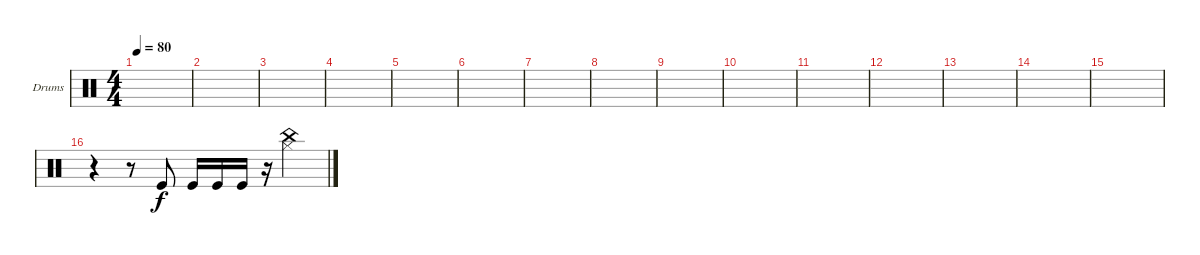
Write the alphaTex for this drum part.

\defaultSystemsLayout 4
\bracketExtendMode groupsimilarinstruments
\firstSystemTrackNameOrientation horizontal
\otherSystemsTrackNameOrientation horizontal
\track ("Drumkit" "Drums") {instrument percussion}
\staff {score}
\articulation defaults
\ts (4 4)
\tempo 80
\clef neutral
\ks c
|
|
|
|
|
|
|
|
|
|
|
|
|
|
|
r.4 r.8 "Kick (hit)".8 "Kick (hit)".16 "Kick (hit)".16 "Kick (hit)".16 r.16 ("China (hit)" "Hi-Hat (closed)").4
